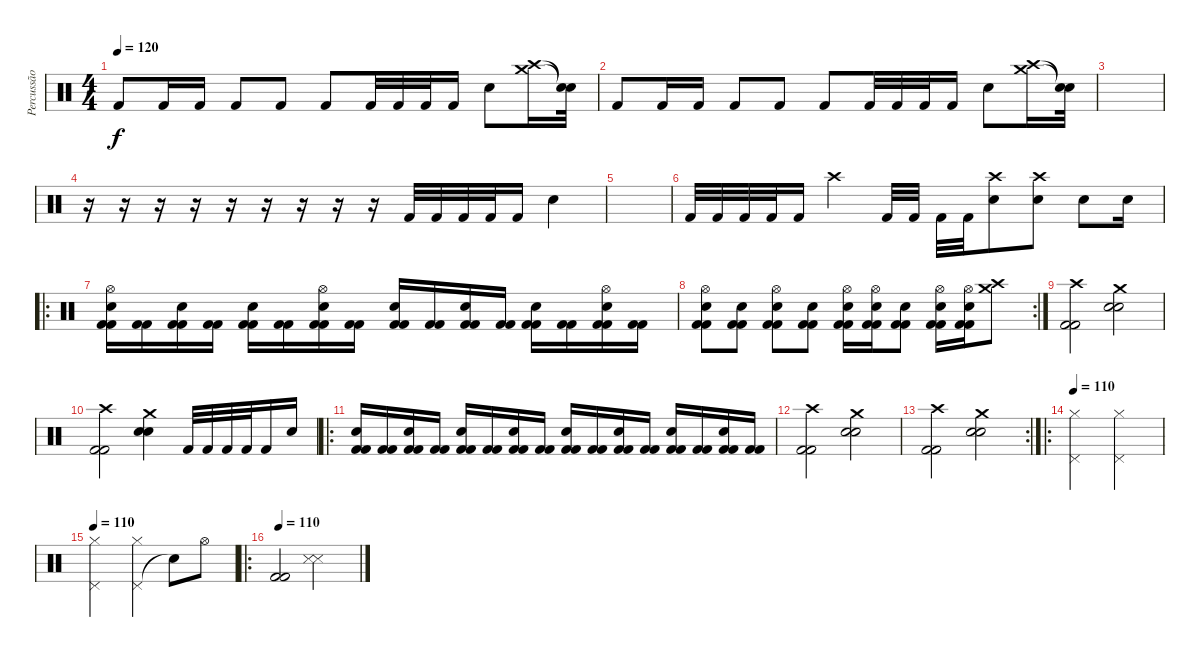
\track ("Percussão" "Percussão") {instrument percussion}
\staff {score}
\articulation defaults
\ts (4 4)
\tempo 120
\clef neutral
\ks c "Kick (hit) 2".8{dy f} "Kick (hit) 2".16 "Kick (hit) 2".16 "Kick (hit) 2".8 "Kick (hit) 2".8 "Kick (hit) 2".8 "Kick (hit) 2".32 "Kick (hit) 2".32 "Kick (hit) 2".32 "Kick (hit) 2".16 "Snare (hit) 2".8
("Crash high (hit)" "Crash medium (hit)").16 ("Snare (hit)"{t} "Snare (hit)"{t}).32 |
"Kick (hit) 2".8 "Kick (hit) 2".16 "Kick (hit) 2".16 "Kick (hit) 2".8 "Kick (hit) 2".8 "Kick (hit) 2".8 "Kick (hit) 2".32 "Kick (hit) 2".32 "Kick (hit) 2".32 "Kick (hit) 2".16 "Snare (hit) 2".8 ("Crash high (hit)" "Crash medium (hit)").16 ("Snare (hit)"{t} "Snare (hit)"{t}).32 |
|
r.16 r.16 r.16 r.16 r.16 r.16 r.16 r.16 r.16 "Kick (hit) 2".32 "Kick (hit) 2".32 "Kick (hit) 2".32 "Kick (hit) 2".32 "Kick (hit) 2".16 "Snare (hit) 2".4 |
|
"Kick (hit) 2".32 "Kick (hit) 2".32 "Kick (hit) 2".32 "Kick (hit) 2".32 "Kick (hit) 2".16 "Crash high (hit)".4 "Kick (hit) 2".32 "Kick (hit) 2".32 "Kick (hit) 2".32 "Kick (hit) 2".32 ("Crash high (hit)" "Snare (hit) 2").8 ("Crash high (hit)" "Snare (hit) 2").8 "Snare (hit) 2".8 "Snare (hit) 2".16 |
\ro
("Hi-Hat (open)" "Snare (hit) 2" "Kick (hit) 2" "Kick (hit) 2").16 ("Kick (hit) 2" "Kick (hit) 2").16 ("Snare (hit) 2" "Kick (hit) 2" "Kick (hit) 2").16 ("Kick (hit) 2" "Kick (hit) 2").16 ("Snare (hit) 2" "Kick (hit) 2" "Kick (hit) 2").16 ("Kick (hit) 2" "Kick (hit) 2").16 ("Hi-Hat (open)" "Snare (hit) 2" "Kick (hit) 2" "Kick (hit) 2").16 ("Kick (hit) 2" "Kick (hit) 2").16 ("Snare (hit) 2" "Kick (hit) 2" "Kick (hit) 2").16 ("Kick (hit) 2" "Kick (hit) 2").16 ("Snare (hit) 2" "Kick (hit) 2" "Kick (hit) 2").16 ("Kick (hit) 2" "Kick (hit) 2").16 ("Snare (hit) 2" "Kick (hit) 2" "Kick (hit) 2").16 ("Kick (hit) 2" "Kick (hit) 2").16 ("Hi-Hat (open)" "Snare (hit) 2" "Kick (hit) 2" "Kick (hit) 2").16 ("Kick (hit) 2" "Kick (hit) 2").16 |
\rc 2
("Hi-Hat (open)" "Kick (hit) 2" "Kick (hit) 2" "Snare (hit) 2").8 ("Kick (hit) 2" "Kick (hit) 2" "Snare (hit) 2").8 ("Hi-Hat (open)" "Kick (hit) 2" "Kick (hit) 2" "Snare (hit) 2").8 ("Kick (hit) 2" "Kick (hit) 2" "Snare (hit) 2").8 ("Hi-Hat (open)" "Kick (hit) 2" "Kick (hit) 2" "Snare (hit) 2").16 ("Hi-Hat (open)" "Kick (hit) 2" "Kick (hit) 2" "Snare (hit) 2").16 ("Kick (hit) 2" "Kick (hit) 2" "Snare (hit) 2").8 ("Hi-Hat (open)" "Kick (hit) 2" "Kick (hit) 2" "Snare (hit) 2").16 ("Hi-Hat (open)" "Snare (hit) 2" "Kick (hit) 2" "Kick (hit) 2").16 ("Crash high (hit)" "Crash medium (hit)").8 |
("Kick (hit) 2" "Kick (hit) 2" "Crash high (hit)").2 ("Snare (hit) 2" "Snare (hit) 2" "Crash medium (hit)").2 |
("Kick (hit) 2" "Kick (hit) 2" "Crash high (hit)").2 ("Snare (hit) 2" "Snare (hit) 2" "Crash medium (hit)").4 "Kick (hit) 2".32 "Kick (hit) 2".32 "Kick (hit) 2".32 "Kick (hit) 2".32 "Kick (hit) 2".16 "Snare (hit) 2".16 |
\ro
("Snare (hit) 2" "Kick (hit) 2" "Kick (hit) 2").16 ("Kick (hit) 2" "Kick (hit) 2").16 ("Snare (hit) 2" "Kick (hit) 2" "Kick (hit) 2").16 ("Kick (hit) 2" "Kick (hit) 2").16 ("Snare (hit) 2" "Kick (hit) 2" "Kick (hit) 2").16 ("Kick (hit) 2" "Kick (hit) 2").16 ("Snare (hit) 2" "Kick (hit) 2" "Kick (hit) 2").16 ("Kick (hit) 2" "Kick (hit) 2").16 ("Snare (hit) 2" "Kick (hit) 2" "Kick (hit) 2").16 ("Kick (hit) 2" "Kick (hit) 2").16 ("Snare (hit) 2" "Kick (hit) 2" "Kick (hit) 2").16 ("Kick (hit) 2" "Kick (hit) 2").16 ("Snare (hit) 2" "Kick (hit) 2" "Kick (hit) 2").16 ("Kick (hit) 2" "Kick (hit) 2").16 ("Snare (hit) 2" "Kick (hit) 2" "Kick (hit) 2").16 ("Kick (hit) 2" "Kick (hit) 2").16 |
("Kick (hit) 2" "Kick (hit) 2" "Crash high (hit)").2 ("Snare (hit) 2" "Snare (hit) 2" "Crash medium (hit)").2 |
\rc 2
("Kick (hit) 2" "Kick (hit) 2" "Crash high (hit)").2 ("Snare (hit) 2" "Snare (hit) 2" "Crash medium (hit)").2 |
\ro
\tempo 110
("Pedal Hi-Hat (hit)" "Hi-Hat (closed)").2 ("Pedal Hi-Hat (hit)" "Hi-Hat (closed)").2 |
\tempo 110
("Pedal Hi-Hat (hit)" "Hi-Hat (closed)").2 ("Pedal Hi-Hat (hit)" "Hi-Hat (closed)").4 "Snare (hit)"{t}.8 "Hi-Hat (open)".8 |
\ro
\tempo 110
("Kick (hit) 2" "Kick (hit) 2").2 ("Metronome (hit)" "Metronome (hit)").2
